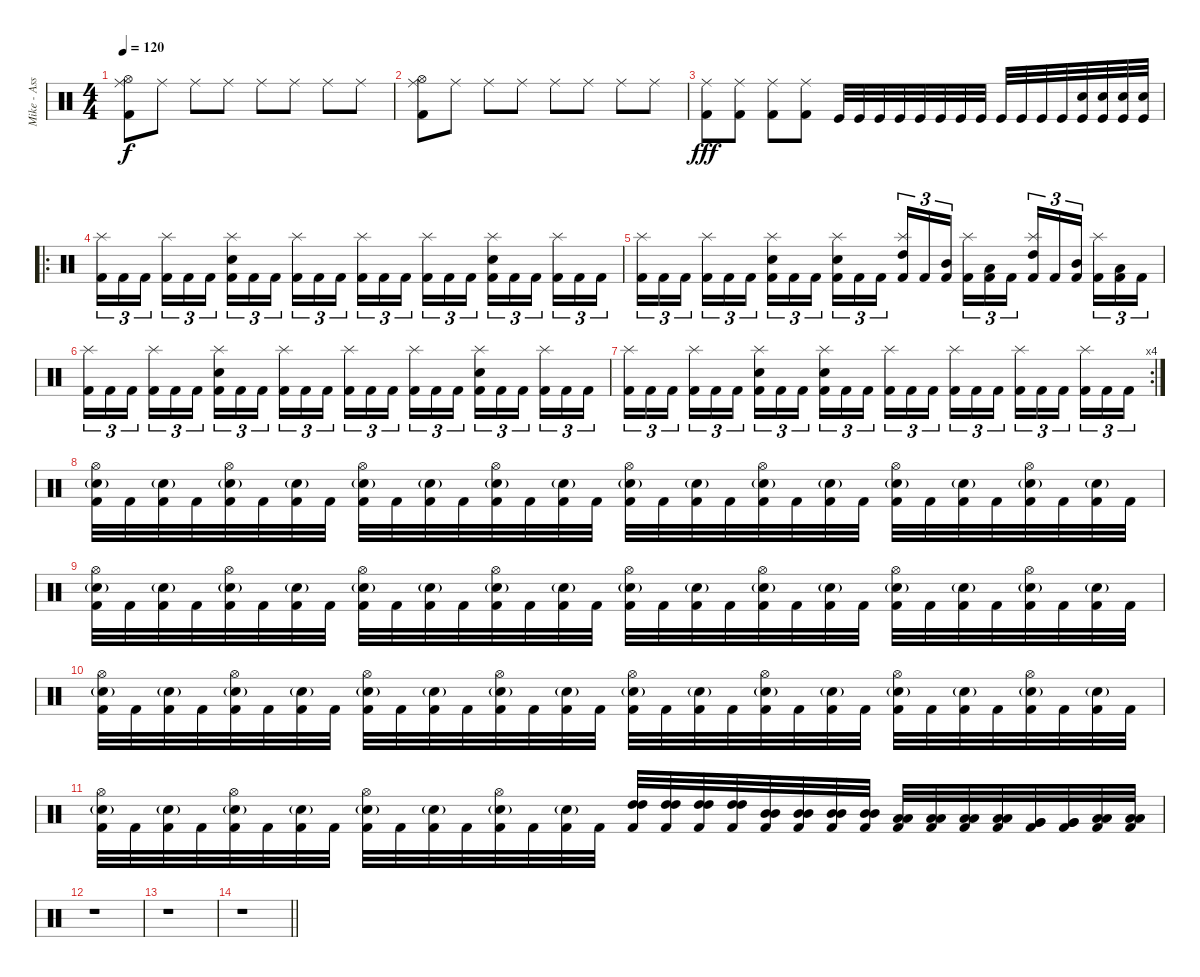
\track ("Mike - Assualt And Battery" "Mike - Ass") {instrument percussion}
\staff {score}
\articulation defaults
\ts (4 4)
\tempo 120
\clef neutral
\ks c
("Ride (middle)" "Hi-Hat (open)" "Kick (hit) 2").8{dy f} "Ride (middle)".8 "Ride (middle)".8 "Ride (middle)".8 "Ride (middle)".8 "Ride (middle)".8 "Ride (middle)".8 "Ride (middle)".8 |
("Ride (middle)" "Hi-Hat (open)" "Kick (hit) 2").8 "Ride (middle)".8 "Ride (middle)".8 "Ride (middle)".8 "Ride (middle)".8 "Ride (middle)".8 "Ride (middle)".8 "Ride (middle)".8 |
("Ride (middle)" "Kick (hit) 2").8{dy fff} ("Ride (middle)" "Kick (hit) 2").8 ("Ride (middle)" "Kick (hit) 2").8 ("Ride (middle)" "Kick (hit) 2").8 "Kick (hit)".32 "Kick (hit)".32 "Kick (hit)".32 "Kick (hit)".32 "Kick (hit)".32 "Kick (hit)".32 "Kick (hit)".32 "Kick (hit)".32 "Kick (hit)".32 "Kick (hit)".32 "Kick (hit)".32 "Kick (hit)".32 ("Electric Snare (hit)" "Kick (hit)").32 ("Electric Snare (hit)" "Kick (hit)").32 ("Electric Snare (hit)" "Kick (hit)").32 ("Electric Snare (hit)" "Kick (hit)").32 |
\ro
("Splash (hit)" "Kick (hit) 2").16{tu (3 2)} "Kick (hit) 2".16{tu (3 2)} "Kick (hit) 2".16{tu (3 2)} ("Splash (hit)" "Kick (hit) 2").16{tu (3 2)} "Kick (hit) 2".16{tu (3 2)} "Kick (hit) 2".16{tu (3 2)} ("Electric Snare (hit)" "Splash (hit)" "Kick (hit) 2").16{tu (3 2)} "Kick (hit) 2".16{tu (3 2)} "Kick (hit) 2".16{tu (3 2)} ("Splash (hit)" "Kick (hit) 2").16{tu (3 2)} "Kick (hit) 2".16{tu (3 2)} "Kick (hit) 2".16{tu (3 2)} ("Splash (hit)" "Kick (hit) 2").16{tu (3 2)} "Kick (hit) 2".16{tu (3 2)} "Kick (hit) 2".16{tu (3 2)} ("Splash (hit)" "Kick (hit) 2").16{tu (3 2)} "Kick (hit) 2".16{tu (3 2)} "Kick (hit) 2".16{tu (3 2)} ("Electric Snare (hit)" "Splash (hit)" "Kick (hit) 2").16{tu (3 2)} "Kick (hit) 2".16{tu (3 2)} "Kick (hit) 2".16{tu (3 2)} ("Splash (hit)" "Kick (hit) 2").16{tu (3 2)} "Kick (hit) 2".16{tu (3 2)} "Kick (hit) 2".16{tu (3 2)} |
("Splash (hit)" "Kick (hit) 2").16{tu (3 2)} "Kick (hit) 2".16{tu (3 2)} "Kick (hit) 2".16{tu (3 2)} ("Splash (hit)" "Kick (hit) 2").16{tu (3 2)} "Kick (hit) 2".16{tu (3 2)} "Kick (hit) 2".16{tu (3 2)} ("Electric Snare (hit)" "Splash (hit)" "Kick (hit) 2").16{tu (3 2)} "Kick (hit) 2".16{tu (3 2)} "Kick (hit) 2".16{tu (3 2)} ("Electric Snare (hit)" "Splash (hit)" "Kick (hit) 2").16{tu (3 2)} "Kick (hit) 2".16{tu (3 2)} "Kick (hit) 2".16{tu (3 2)} ("High Tom (hit)" "Splash (hit)" "Kick (hit) 2").16{tu (3 2)} "Kick (hit) 2".16{tu (3 2)} ("Mid Tom (hit)" "Kick (hit) 2").16{tu (3 2)} ("Splash (hit)" "Kick (hit) 2").16{tu (3 2)} ("Low Tom (hit)" "Kick (hit) 2").16{tu (3 2)} "Kick (hit) 2".16{tu (3 2)} ("High Tom (hit)" "Splash (hit)" "Kick (hit) 2").16{tu (3 2)} "Kick (hit) 2".16{tu (3 2)} ("Mid Tom (hit)" "Kick (hit) 2").16{tu (3 2)} ("Splash (hit)" "Kick (hit) 2").16{tu (3 2)} ("Low Tom (hit)" "Kick (hit) 2").16{tu (3 2)} "Kick (hit) 2".16{tu (3 2)} |
("Splash (hit)" "Kick (hit) 2").16{tu (3 2)} "Kick (hit) 2".16{tu (3 2)} "Kick (hit) 2".16{tu (3 2)} ("Splash (hit)" "Kick (hit) 2").16{tu (3 2)} "Kick (hit) 2".16{tu (3 2)} "Kick (hit) 2".16{tu (3 2)} ("Electric Snare (hit)" "Splash (hit)" "Kick (hit) 2").16{tu (3 2)} "Kick (hit) 2".16{tu (3 2)} "Kick (hit) 2".16{tu (3 2)} ("Splash (hit)" "Kick (hit) 2").16{tu (3 2)} "Kick (hit) 2".16{tu (3 2)} "Kick (hit) 2".16{tu (3 2)} ("Splash (hit)" "Kick (hit) 2").16{tu (3 2)} "Kick (hit) 2".16{tu (3 2)} "Kick (hit) 2".16{tu (3 2)} ("Splash (hit)" "Kick (hit) 2").16{tu (3 2)} "Kick (hit) 2".16{tu (3 2)} "Kick (hit) 2".16{tu (3 2)} ("Electric Snare (hit)" "Splash (hit)" "Kick (hit) 2").16{tu (3 2)} "Kick (hit) 2".16{tu (3 2)} "Kick (hit) 2".16{tu (3 2)} ("Splash (hit)" "Kick (hit) 2").16{tu (3 2)} "Kick (hit) 2".16{tu (3 2)} "Kick (hit) 2".16{tu (3 2)} |
\rc 4
("Splash (hit)" "Kick (hit) 2").16{tu (3 2)} "Kick (hit) 2".16{tu (3 2)} "Kick (hit) 2".16{tu (3 2)} ("Splash (hit)" "Kick (hit) 2").16{tu (3 2)} "Kick (hit) 2".16{tu (3 2)} "Kick (hit) 2".16{tu (3 2)} ("Electric Snare (hit)" "Splash (hit)" "Kick (hit) 2").16{tu (3 2)} "Kick (hit) 2".16{tu (3 2)} "Kick (hit) 2".16{tu (3 2)} ("Electric Snare (hit)" "Splash (hit)" "Kick (hit) 2").16{tu (3 2)} "Kick (hit) 2".16{tu (3 2)} "Kick (hit) 2".16{tu (3 2)} ("Splash (hit)" "Kick (hit) 2").16{tu (3 2)} "Kick (hit) 2".16{tu (3 2)} "Kick (hit) 2".16{tu (3 2)} ("Splash (hit)" "Kick (hit) 2").16{tu (3 2)} "Kick (hit) 2".16{tu (3 2)} "Kick (hit) 2".16{tu (3 2)} ("Splash (hit)" "Kick (hit) 2").16{tu (3 2)} "Kick (hit) 2".16{tu (3 2)} "Kick (hit) 2".16{tu (3 2)} ("Splash (hit)" "Kick (hit) 2").16{tu (3 2)} "Kick (hit) 2".16{tu (3 2)} "Kick (hit) 2".16{tu (3 2)} |
("Snare (hit) 2"{g} "Hi-Hat (open)" "Kick (hit) 2").32 "Kick (hit) 2".32 ("Snare (hit) 2"{g} "Kick (hit) 2").32 "Kick (hit) 2".32 ("Snare (hit) 2"{g} "Hi-Hat (open)" "Kick (hit) 2").32 "Kick (hit) 2".32 ("Snare (hit) 2"{g} "Kick (hit) 2").32 "Kick (hit) 2".32 ("Snare (hit) 2"{g} "Hi-Hat (open)" "Kick (hit) 2").32 "Kick (hit) 2".32 ("Snare (hit) 2"{g} "Kick (hit) 2").32 "Kick (hit) 2".32 ("Snare (hit) 2"{g} "Hi-Hat (open)" "Kick (hit) 2").32 "Kick (hit) 2".32 ("Snare (hit) 2"{g} "Kick (hit) 2").32 "Kick (hit) 2".32 ("Snare (hit) 2"{g} "Hi-Hat (open)" "Kick (hit) 2").32 "Kick (hit) 2".32 ("Snare (hit) 2"{g} "Kick (hit) 2").32 "Kick (hit) 2".32 ("Snare (hit) 2"{g} "Hi-Hat (open)" "Kick (hit) 2").32 "Kick (hit) 2".32 ("Snare (hit) 2"{g} "Kick (hit) 2").32 "Kick (hit) 2".32 ("Snare (hit) 2"{g} "Hi-Hat (open)" "Kick (hit) 2").32 "Kick (hit) 2".32 ("Snare (hit) 2"{g} "Kick (hit) 2").32 "Kick (hit) 2".32 ("Snare (hit) 2"{g} "Hi-Hat (open)" "Kick (hit) 2").32 "Kick (hit) 2".32 ("Snare (hit) 2"{g} "Kick (hit) 2").32 "Kick (hit) 2".32 |
("Snare (hit) 2"{g} "Hi-Hat (open)" "Kick (hit) 2").32 "Kick (hit) 2".32 ("Snare (hit) 2"{g} "Kick (hit) 2").32 "Kick (hit) 2".32 ("Snare (hit) 2"{g} "Hi-Hat (open)" "Kick (hit) 2").32 "Kick (hit) 2".32 ("Snare (hit) 2"{g} "Kick (hit) 2").32 "Kick (hit) 2".32 ("Snare (hit) 2"{g} "Hi-Hat (open)" "Kick (hit) 2").32 "Kick (hit) 2".32 ("Snare (hit) 2"{g} "Kick (hit) 2").32 "Kick (hit) 2".32 ("Snare (hit) 2"{g} "Hi-Hat (open)" "Kick (hit) 2").32 "Kick (hit) 2".32 ("Snare (hit) 2"{g} "Kick (hit) 2").32 "Kick (hit) 2".32 ("Snare (hit) 2"{g} "Hi-Hat (open)" "Kick (hit) 2").32 "Kick (hit) 2".32 ("Snare (hit) 2"{g} "Kick (hit) 2").32 "Kick (hit) 2".32 ("Snare (hit) 2"{g} "Hi-Hat (open)" "Kick (hit) 2").32 "Kick (hit) 2".32 ("Snare (hit) 2"{g} "Kick (hit) 2").32 "Kick (hit) 2".32 ("Snare (hit) 2"{g} "Hi-Hat (open)" "Kick (hit) 2").32 "Kick (hit) 2".32 ("Snare (hit) 2"{g} "Kick (hit) 2").32 "Kick (hit) 2".32 ("Snare (hit) 2"{g} "Hi-Hat (open)" "Kick (hit) 2").32 "Kick (hit) 2".32 ("Snare (hit) 2"{g} "Kick (hit) 2").32 "Kick (hit) 2".32 |
("Snare (hit) 2"{g} "Hi-Hat (open)" "Kick (hit) 2").32 "Kick (hit) 2".32 ("Snare (hit) 2"{g} "Kick (hit) 2").32 "Kick (hit) 2".32 ("Snare (hit) 2"{g} "Hi-Hat (open)" "Kick (hit) 2").32 "Kick (hit) 2".32 ("Snare (hit) 2"{g} "Kick (hit) 2").32 "Kick (hit) 2".32 ("Snare (hit) 2"{g} "Hi-Hat (open)" "Kick (hit) 2").32 "Kick (hit) 2".32 ("Snare (hit) 2"{g} "Kick (hit) 2").32 "Kick (hit) 2".32 ("Snare (hit) 2"{g} "Hi-Hat (open)" "Kick (hit) 2").32 "Kick (hit) 2".32 ("Snare (hit) 2"{g} "Kick (hit) 2").32 "Kick (hit) 2".32 ("Snare (hit) 2"{g} "Hi-Hat (open)" "Kick (hit) 2").32 "Kick (hit) 2".32 ("Snare (hit) 2"{g} "Kick (hit) 2").32 "Kick (hit) 2".32 ("Snare (hit) 2"{g} "Hi-Hat (open)" "Kick (hit) 2").32 "Kick (hit) 2".32 ("Snare (hit) 2"{g} "Kick (hit) 2").32 "Kick (hit) 2".32 ("Snare (hit) 2"{g} "Hi-Hat (open)" "Kick (hit) 2").32 "Kick (hit) 2".32 ("Snare (hit) 2"{g} "Kick (hit) 2").32 "Kick (hit) 2".32 ("Snare (hit) 2"{g} "Hi-Hat (open)" "Kick (hit) 2").32 "Kick (hit) 2".32 ("Snare (hit) 2"{g} "Kick (hit) 2").32 "Kick (hit) 2".32 |
("Snare (hit) 2"{g} "Hi-Hat (open)" "Kick (hit) 2").32 "Kick (hit) 2".32 ("Snare (hit) 2"{g} "Kick (hit) 2").32 "Kick (hit) 2".32 ("Snare (hit) 2"{g} "Hi-Hat (open)" "Kick (hit) 2").32 "Kick (hit) 2".32 ("Snare (hit) 2"{g} "Kick (hit) 2").32 "Kick (hit) 2".32 ("Snare (hit) 2"{g} "Hi-Hat (open)" "Kick (hit) 2").32 "Kick (hit) 2".32 ("Snare (hit) 2"{g} "Kick (hit) 2").32 "Kick (hit) 2".32 ("Snare (hit) 2"{g} "Hi-Hat (open)" "Kick (hit) 2").32 "Kick (hit) 2".32 ("Snare (hit) 2"{g} "Kick (hit) 2").32 "Kick (hit) 2".32 ("High Tom (hit)" "High Tom (hit)" "Kick (hit) 2").32 ("High Tom (hit)" "High Tom (hit)" "Kick (hit) 2").32 ("High Tom (hit)" "High Tom (hit)" "Kick (hit) 2").32 ("High Tom (hit)" "High Tom (hit)" "Kick (hit) 2").32 ("Mid Tom (hit)" "Mid Tom (hit)" "Kick (hit) 2").32 ("Mid Tom (hit)" "Mid Tom (hit)" "Kick (hit) 2").32 ("Mid Tom (hit)" "Mid Tom (hit)" "Kick (hit) 2").32 ("Mid Tom (hit)" "Mid Tom (hit)" "Kick (hit) 2").32 ("Low Tom (hit)" "Low Tom (hit)" "Kick (hit) 2").32 ("Low Tom (hit)" "Low Tom (hit)" "Kick (hit) 2").32 ("Low Tom (hit)" "Low Tom (hit)" "Kick (hit) 2").32 ("Low Tom (hit)" "Low Tom (hit)" "Kick (hit) 2").32 ("Very Low Tom (hit)" "Very Low Tom (hit)" "Kick (hit) 2").32 ("Very Low Tom (hit)" "Very Low Tom (hit)" "Kick (hit) 2").32 ("Low Floor Tom (hit)" "Low Floor Tom (hit)" "Kick (hit) 2").32 ("Low Floor Tom (hit)" "Low Floor Tom (hit)" "Kick (hit) 2").32 |
r.1 |
r.1 |
\barLineRight lightlight
r.1
